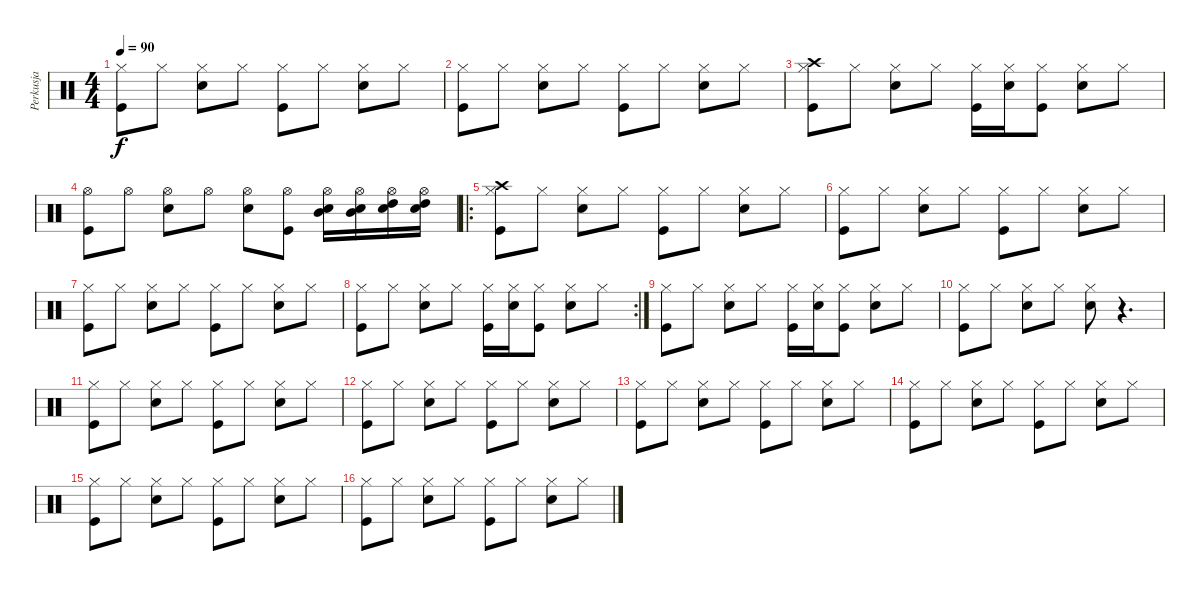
\track ("Perkusja" "Perkusja") {instrument percussion}
\staff {score}
\articulation defaults
\ts (4 4)
\tempo 90
\clef neutral
\ks c
("Hi-Hat (closed)" "Kick (hit)").8{dy f} "Hi-Hat (closed)".8 ("Hi-Hat (closed)" "Electric Snare (hit)").8 "Hi-Hat (closed)".8 ("Hi-Hat (closed)" "Kick (hit)").8 "Hi-Hat (closed)".8 ("Hi-Hat (closed)" "Electric Snare (hit)").8 "Hi-Hat (closed)".8 |
("Hi-Hat (closed)" "Kick (hit)").8 "Hi-Hat (closed)".8 ("Hi-Hat (closed)" "Electric Snare (hit)").8 "Hi-Hat (closed)".8 ("Hi-Hat (closed)" "Kick (hit)").8 "Hi-Hat (closed)".8 ("Hi-Hat (closed)" "Electric Snare (hit)").8 "Hi-Hat (closed)".8 |
("Hi-Hat (closed)" "Crash high (hit)" "Kick (hit)").8 "Hi-Hat (closed)".8 ("Hi-Hat (closed)" "Electric Snare (hit)").8 "Hi-Hat (closed)".8 ("Hi-Hat (closed)" "Kick (hit)").16 ("Hi-Hat (closed)" "Electric Snare (hit)").16 ("Hi-Hat (closed)" "Kick (hit)").8 ("Hi-Hat (closed)" "Electric Snare (hit)").8 "Hi-Hat (closed)".8 |
("Hi-Hat (open)" "Kick (hit)").8 "Hi-Hat (open)".8 ("Hi-Hat (open)" "Electric Snare (hit)").8 "Hi-Hat (open)".8 ("Hi-Hat (open)" "Electric Snare (hit)").8 ("Hi-Hat (open)" "Kick (hit)").8 ("Hi-Hat (open)" "Mid Tom (hit)" "Electric Snare (hit)").16 ("Hi-Hat (open)" "Mid Tom (hit)" "Electric Snare (hit)").16 ("Hi-Hat (open)" "High Tom (hit)" "Electric Snare (hit)").16 ("Hi-Hat (open)" "High Tom (hit)" "Electric Snare (hit)").16 |
\ro
("Hi-Hat (closed)" "Crash high (hit)" "Kick (hit)").8 "Hi-Hat (closed)".8 ("Hi-Hat (closed)" "Electric Snare (hit)").8 "Hi-Hat (closed)".8 ("Hi-Hat (closed)" "Kick (hit)").8 "Hi-Hat (closed)".8 ("Hi-Hat (closed)" "Electric Snare (hit)").8 "Hi-Hat (closed)".8 |
("Hi-Hat (closed)" "Kick (hit)").8 "Hi-Hat (closed)".8 ("Hi-Hat (closed)" "Electric Snare (hit)").8 "Hi-Hat (closed)".8 ("Hi-Hat (closed)" "Kick (hit)").8 "Hi-Hat (closed)".8 ("Hi-Hat (closed)" "Electric Snare (hit)").8 "Hi-Hat (closed)".8 |
("Hi-Hat (closed)" "Kick (hit)").8 "Hi-Hat (closed)".8 ("Hi-Hat (closed)" "Electric Snare (hit)").8 "Hi-Hat (closed)".8 ("Hi-Hat (closed)" "Kick (hit)").8 "Hi-Hat (closed)".8 ("Hi-Hat (closed)" "Electric Snare (hit)").8 "Hi-Hat (closed)".8 |
\rc 2
("Hi-Hat (closed)" "Kick (hit)").8 "Hi-Hat (closed)".8 ("Hi-Hat (closed)" "Electric Snare (hit)").8 "Hi-Hat (closed)".8 ("Hi-Hat (closed)" "Kick (hit)").16 ("Hi-Hat (closed)" "Electric Snare (hit)").16 ("Hi-Hat (closed)" "Kick (hit)").8 ("Hi-Hat (closed)" "Electric Snare (hit)").8 "Hi-Hat (closed)".8 |
("Hi-Hat (closed)" "Kick (hit)").8 "Hi-Hat (closed)".8 ("Hi-Hat (closed)" "Electric Snare (hit)").8 "Hi-Hat (closed)".8 ("Hi-Hat (closed)" "Kick (hit)").16 ("Hi-Hat (closed)" "Electric Snare (hit)").16 ("Hi-Hat (closed)" "Kick (hit)").8 ("Hi-Hat (closed)" "Electric Snare (hit)").8 "Hi-Hat (closed)".8 |
("Hi-Hat (closed)" "Kick (hit)").8 "Hi-Hat (closed)".8 ("Hi-Hat (closed)" "Electric Snare (hit)").8 "Hi-Hat (closed)".8 ("Hi-Hat (closed)" "Electric Snare (hit)").8 r.4{d} |
("Hi-Hat (closed)" "Kick (hit)").8 "Hi-Hat (closed)".8 ("Hi-Hat (closed)" "Electric Snare (hit)").8 "Hi-Hat (closed)".8 ("Hi-Hat (closed)" "Kick (hit)").8 "Hi-Hat (closed)".8 ("Hi-Hat (closed)" "Electric Snare (hit)").8 "Hi-Hat (closed)".8 |
("Hi-Hat (closed)" "Kick (hit)").8 "Hi-Hat (closed)".8 ("Hi-Hat (closed)" "Electric Snare (hit)").8 "Hi-Hat (closed)".8 ("Hi-Hat (closed)" "Kick (hit)").8 "Hi-Hat (closed)".8 ("Hi-Hat (closed)" "Electric Snare (hit)").8 "Hi-Hat (closed)".8 |
("Hi-Hat (closed)" "Kick (hit)").8 "Hi-Hat (closed)".8 ("Hi-Hat (closed)" "Electric Snare (hit)").8 "Hi-Hat (closed)".8 ("Hi-Hat (closed)" "Kick (hit)").8 "Hi-Hat (closed)".8 ("Hi-Hat (closed)" "Electric Snare (hit)").8 "Hi-Hat (closed)".8 |
("Hi-Hat (closed)" "Kick (hit)").8 "Hi-Hat (closed)".8 ("Hi-Hat (closed)" "Electric Snare (hit)").8 "Hi-Hat (closed)".8 ("Hi-Hat (closed)" "Kick (hit)").8 "Hi-Hat (closed)".8 ("Hi-Hat (closed)" "Electric Snare (hit)").8 "Hi-Hat (closed)".8 |
("Hi-Hat (closed)" "Kick (hit)").8 "Hi-Hat (closed)".8 ("Hi-Hat (closed)" "Electric Snare (hit)").8 "Hi-Hat (closed)".8 ("Hi-Hat (closed)" "Kick (hit)").8 "Hi-Hat (closed)".8 ("Hi-Hat (closed)" "Electric Snare (hit)").8 "Hi-Hat (closed)".8 |
("Hi-Hat (closed)" "Kick (hit)").8 "Hi-Hat (closed)".8 ("Hi-Hat (closed)" "Electric Snare (hit)").8 "Hi-Hat (closed)".8 ("Hi-Hat (closed)" "Kick (hit)").8 "Hi-Hat (closed)".8 ("Hi-Hat (closed)" "Electric Snare (hit)").8 "Hi-Hat (closed)".8
